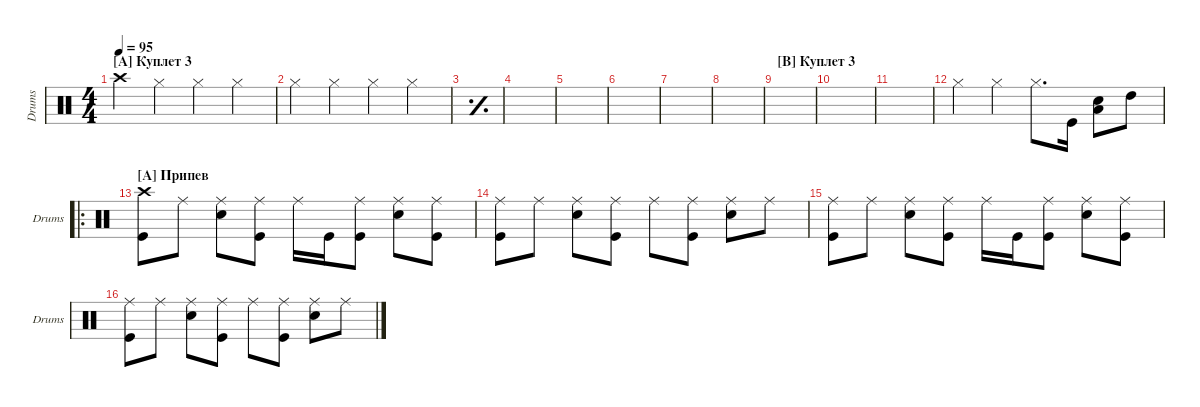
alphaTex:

\defaultSystemsLayout 4
\hideDynamics
\bracketExtendMode groupsimilarinstruments
\singleTrackTrackNamePolicy allsystems
\multiTrackTrackNamePolicy allsystems
\otherSystemsTrackNameOrientation horizontal
\track ("Drumkit" "Drums") {instrument percussion}
\staff {score}
\articulation defaults
\ts (4 4)
\section ("A" "Куплет 3")
\tempo 95
\clef neutral
\ks c "Crash high (hit)".4{dy ff} "Hi-Hat (closed)".4 "Hi-Hat (closed)".4 "Hi-Hat (closed)".4
|
"Hi-Hat (closed)".4 "Hi-Hat (closed)".4 "Hi-Hat (closed)".4 "Hi-Hat (closed)".4 |
\simile simple
|
|
|
|
|
|
\section ("B" "Куплет 3")
|
|
|
\simile none "Hi-Hat (closed)".4 "Hi-Hat (closed)".4 "Hi-Hat (closed)".8{d} "Kick (hit)".16
("Snare (hit) 2" "Low Tom (hit)").8 "High Tom (hit)".8 |
\ro
\section ("A" "Припев")
("Kick (hit)" "Crash high (hit)").8 "Ride (middle)".8 ("Snare (hit) 2" "Ride (middle)").8 ("Kick (hit)" "Ride (middle)").8 "Ride (middle)".16 "Kick (hit)".16 ("Kick (hit)" "Ride (middle)").8 ("Snare (hit) 2" "Ride (middle)").8 ("Kick (hit)" "Ride (middle)").8 |
("Kick (hit)" "Ride (middle)").8 "Ride (middle)".8 ("Snare (hit) 2" "Ride (middle)").8 ("Kick (hit)" "Ride (middle)").8 "Ride (middle)".8 ("Kick (hit)" "Ride (middle)").8 ("Snare (hit) 2" "Ride (middle)").8 "Ride (middle)".8 |
("Kick (hit)" "Ride (middle)").8 "Ride (middle)".8 ("Snare (hit) 2" "Ride (middle)").8 ("Kick (hit)" "Ride (middle)").8 "Ride (middle)".16 "Kick (hit)".16 ("Kick (hit)" "Ride (middle)").8 ("Snare (hit) 2" "Ride (middle)").8 ("Kick (hit)" "Ride (middle)").8 |
("Kick (hit)" "Ride (middle)").8 "Ride (middle)".8 ("Snare (hit) 2" "Ride (middle)").8 ("Kick (hit)" "Ride (middle)").8 "Ride (middle)".8 ("Kick (hit)" "Ride (middle)").8 ("Snare (hit) 2" "Ride (middle)").8 "Ride (middle)".8
